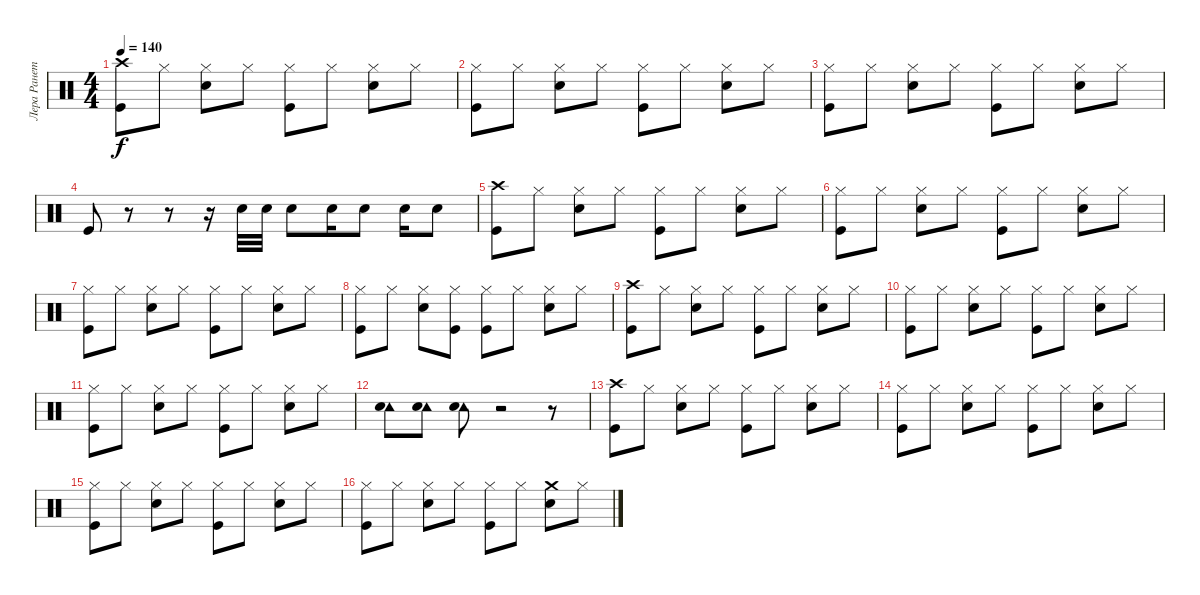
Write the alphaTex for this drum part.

\track ("Лера Ранетка" "Лера Ранет") {instrument percussion}
\staff {score}
\articulation defaults
\ts (4 4)
\tempo 140
\clef neutral
\ks c
("Crash high (hit)" "Kick (hit)").8{dy f} "Hi-Hat (closed)".8 ("Hi-Hat (closed)" "Electric Snare (hit)").8 "Hi-Hat (closed)".8 ("Hi-Hat (closed)" "Kick (hit)").8 "Hi-Hat (closed)".8 ("Hi-Hat (closed)" "Electric Snare (hit)").8 "Hi-Hat (closed)".8 |
("Hi-Hat (closed)" "Kick (hit)").8 "Hi-Hat (closed)".8 ("Hi-Hat (closed)" "Electric Snare (hit)").8 "Hi-Hat (closed)".8 ("Hi-Hat (closed)" "Kick (hit)").8 "Hi-Hat (closed)".8 ("Hi-Hat (closed)" "Electric Snare (hit)").8 "Hi-Hat (closed)".8 |
("Hi-Hat (closed)" "Kick (hit)").8 "Hi-Hat (closed)".8 ("Hi-Hat (closed)" "Electric Snare (hit)").8 "Hi-Hat (closed)".8 ("Hi-Hat (closed)" "Kick (hit)").8 "Hi-Hat (closed)".8 ("Hi-Hat (closed)" "Electric Snare (hit)").8 "Hi-Hat (closed)".8 |
"Kick (hit)".8 r.8 r.8 r.16 "Electric Snare (hit)".32 "Electric Snare (hit)".32 "Electric Snare (hit)".8 "Electric Snare (hit)".16 "Electric Snare (hit)".8 "Electric Snare (hit)".16 "Electric Snare (hit)".8 |
("Crash high (hit)" "Kick (hit)").8 "Hi-Hat (closed)".8 ("Hi-Hat (closed)" "Electric Snare (hit)").8 "Hi-Hat (closed)".8 ("Hi-Hat (closed)" "Kick (hit)").8 "Hi-Hat (closed)".8 ("Hi-Hat (closed)" "Electric Snare (hit)").8 "Hi-Hat (closed)".8 |
("Hi-Hat (closed)" "Kick (hit)").8 "Hi-Hat (closed)".8 ("Hi-Hat (closed)" "Electric Snare (hit)").8 "Hi-Hat (closed)".8 ("Hi-Hat (closed)" "Kick (hit)").8 "Hi-Hat (closed)".8 ("Hi-Hat (closed)" "Electric Snare (hit)").8 "Hi-Hat (closed)".8 |
("Hi-Hat (closed)" "Kick (hit)").8 "Hi-Hat (closed)".8 ("Hi-Hat (closed)" "Electric Snare (hit)").8 "Hi-Hat (closed)".8 ("Hi-Hat (closed)" "Kick (hit)").8 "Hi-Hat (closed)".8 ("Hi-Hat (closed)" "Electric Snare (hit)").8 "Hi-Hat (closed)".8 |
("Hi-Hat (closed)" "Kick (hit)").8 "Hi-Hat (closed)".8 ("Hi-Hat (closed)" "Electric Snare (hit)").8 ("Hi-Hat (closed)" "Kick (hit)").8 ("Hi-Hat (closed)" "Kick (hit)").8 "Hi-Hat (closed)".8 ("Hi-Hat (closed)" "Electric Snare (hit)").8 "Hi-Hat (closed)".8 |
("Crash high (hit)" "Kick (hit)").8 "Hi-Hat (closed)".8 ("Hi-Hat (closed)" "Electric Snare (hit)").8 "Hi-Hat (closed)".8 ("Hi-Hat (closed)" "Kick (hit)").8 "Hi-Hat (closed)".8 ("Hi-Hat (closed)" "Electric Snare (hit)").8 "Hi-Hat (closed)".8 |
("Hi-Hat (closed)" "Kick (hit)").8 "Hi-Hat (closed)".8 ("Hi-Hat (closed)" "Electric Snare (hit)").8 "Hi-Hat (closed)".8 ("Hi-Hat (closed)" "Kick (hit)").8 "Hi-Hat (closed)".8 ("Hi-Hat (closed)" "Electric Snare (hit)").8 "Hi-Hat (closed)".8 |
("Hi-Hat (closed)" "Kick (hit)").8 "Hi-Hat (closed)".8 ("Hi-Hat (closed)" "Electric Snare (hit)").8 "Hi-Hat (closed)".8 ("Hi-Hat (closed)" "Kick (hit)").8 "Hi-Hat (closed)".8 ("Hi-Hat (closed)" "Electric Snare (hit)").8 "Hi-Hat (closed)".8 |
("Tambourine (hit)" "Electric Snare (hit)").8 ("Tambourine (hit)" "Electric Snare (hit)").8 ("Tambourine (hit)" "Electric Snare (hit)").8 r.2 r.8 |
("Crash high (hit)" "Kick (hit)").8 "Hi-Hat (closed)".8 ("Hi-Hat (closed)" "Electric Snare (hit)").8 "Hi-Hat (closed)".8 ("Hi-Hat (closed)" "Kick (hit)").8 "Hi-Hat (closed)".8 ("Hi-Hat (closed)" "Electric Snare (hit)").8 "Hi-Hat (closed)".8 |
("Hi-Hat (closed)" "Kick (hit)").8 "Hi-Hat (closed)".8 ("Hi-Hat (closed)" "Electric Snare (hit)").8 "Hi-Hat (closed)".8 ("Hi-Hat (closed)" "Kick (hit)").8 "Hi-Hat (closed)".8 ("Hi-Hat (closed)" "Electric Snare (hit)").8 "Hi-Hat (closed)".8 |
("Hi-Hat (closed)" "Kick (hit)").8 "Hi-Hat (closed)".8 ("Hi-Hat (closed)" "Electric Snare (hit)").8 "Hi-Hat (closed)".8 ("Hi-Hat (closed)" "Kick (hit)").8 "Hi-Hat (closed)".8 ("Hi-Hat (closed)" "Electric Snare (hit)").8 "Hi-Hat (closed)".8 |
("Hi-Hat (closed)" "Kick (hit)").8 "Hi-Hat (closed)".8 ("Hi-Hat (closed)" "Electric Snare (hit)").8 "Hi-Hat (closed)".8 ("Hi-Hat (closed)" "Kick (hit)").8 "Hi-Hat (closed)".8 ("Crash medium (hit)" "Electric Snare (hit)").8 "Hi-Hat (closed)".8
